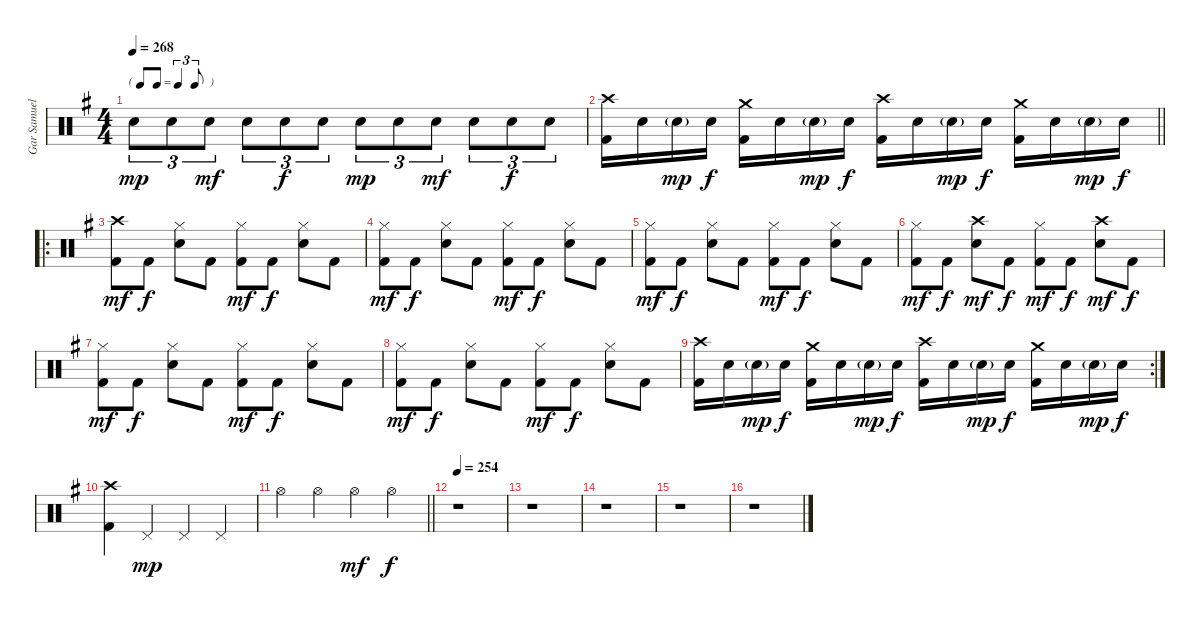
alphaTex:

\track ("Gar Samuelson" "Gar Samuel") {instrument percussion}
\staff {score}
\articulation defaults
\ts (4 4)
\tf triplet8th
\tempo 268
\clef neutral
\ks g "Snare (hit) 2".8{tu (3 2) dy mp} "Snare (hit) 2".8{tu (3 2)} "Snare (hit) 2".8{tu (3 2) dy mf} "Snare (hit) 2".8{tu (3 2)} "Snare (hit) 2".8{tu (3 2) dy f} "Snare (hit) 2".8{tu (3 2)} "Snare (hit) 2".8{tu (3 2) dy mp} "Snare (hit) 2".8{tu (3 2)} "Snare (hit) 2".8{tu (3 2) dy mf} "Snare (hit) 2".8{tu (3 2)} "Snare (hit) 2".8{tu (3 2) dy f} "Snare (hit) 2".8{tu (3 2)}
|
\barLineRight lightlight
("Crash high (hit)" "Kick (hit) 2").16 "Snare (hit) 2".16 "Snare (hit) 2"{g}.16{dy mp} "Snare (hit) 2".16{dy f} ("Crash medium (hit)" "Kick (hit) 2").16 "Snare (hit) 2".16 "Snare (hit) 2"{g}.16{dy mp} "Snare (hit) 2".16{dy f} ("Crash high (hit)" "Kick (hit) 2").16 "Snare (hit) 2".16 "Snare (hit) 2"{g}.16{dy mp} "Snare (hit) 2".16{dy f} ("Crash medium (hit)" "Kick (hit) 2").16 "Snare (hit) 2".16 "Snare (hit) 2"{g}.16{dy mp} "Snare (hit) 2".16{dy f} |
\ro
("Crash high (hit)" "Kick (hit) 2").8{dy mf} "Kick (hit) 2".8{dy f} ("Hi-Hat (closed)" "Snare (hit) 2").8 "Kick (hit) 2".8 ("Hi-Hat (closed)" "Kick (hit) 2").8{dy mf} "Kick (hit) 2".8{dy f} ("Hi-Hat (closed)" "Snare (hit) 2").8 "Kick (hit) 2".8 |
("Hi-Hat (closed)" "Kick (hit) 2").8{dy mf} "Kick (hit) 2".8{dy f} ("Hi-Hat (closed)" "Snare (hit) 2").8 "Kick (hit) 2".8 ("Hi-Hat (closed)" "Kick (hit) 2").8{dy mf} "Kick (hit) 2".8{dy f} ("Hi-Hat (closed)" "Snare (hit) 2").8 "Kick (hit) 2".8 |
("Hi-Hat (closed)" "Kick (hit) 2").8{dy mf} "Kick (hit) 2".8{dy f} ("Hi-Hat (closed)" "Snare (hit) 2").8 "Kick (hit) 2".8 ("Hi-Hat (closed)" "Kick (hit) 2").8{dy mf} "Kick (hit) 2".8{dy f} ("Hi-Hat (closed)" "Snare (hit) 2").8 "Kick (hit) 2".8 |
("Hi-Hat (closed)" "Kick (hit) 2").8{dy mf} "Kick (hit) 2".8{dy f} ("Crash high (hit)" "Snare (hit) 2").8{dy mf} "Kick (hit) 2".8{dy f} ("Hi-Hat (closed)" "Kick (hit) 2").8{dy mf} "Kick (hit) 2".8{dy f} ("Crash high (hit)" "Snare (hit) 2").8{dy mf} "Kick (hit) 2".8{dy f} |
("Hi-Hat (closed)" "Kick (hit) 2").8{dy mf} "Kick (hit) 2".8{dy f} ("Hi-Hat (closed)" "Snare (hit) 2").8 "Kick (hit) 2".8 ("Hi-Hat (closed)" "Kick (hit) 2").8{dy mf} "Kick (hit) 2".8{dy f} ("Hi-Hat (closed)" "Snare (hit) 2").8 "Kick (hit) 2".8 |
("Hi-Hat (closed)" "Kick (hit) 2").8{dy mf} "Kick (hit) 2".8{dy f} ("Hi-Hat (closed)" "Snare (hit) 2").8 "Kick (hit) 2".8 ("Hi-Hat (closed)" "Kick (hit) 2").8{dy mf} "Kick (hit) 2".8{dy f} ("Hi-Hat (closed)" "Snare (hit) 2").8 "Kick (hit) 2".8 |
\rc 2
("Crash high (hit)" "Kick (hit) 2").16 "Snare (hit) 2".16 "Snare (hit) 2"{g}.16{dy mp} "Snare (hit) 2".16{dy f} ("Crash medium (hit)" "Kick (hit) 2").16 "Snare (hit) 2".16 "Snare (hit) 2"{g}.16{dy mp} "Snare (hit) 2".16{dy f} ("Crash high (hit)" "Kick (hit) 2").16 "Snare (hit) 2".16 "Snare (hit) 2"{g}.16{dy mp} "Snare (hit) 2".16{dy f} ("Crash medium (hit)" "Kick (hit) 2").16 "Snare (hit) 2".16 "Snare (hit) 2"{g}.16{dy mp} "Snare (hit) 2".16{dy f} |
("Crash high (hit)" "Kick (hit) 2").4 "Pedal Hi-Hat (hit)".4{dy mp} "Pedal Hi-Hat (hit)".4 "Pedal Hi-Hat (hit)".4 |
\barLineRight lightlight "Hi-Hat (open)".4 "Hi-Hat (open)".4 "Hi-Hat (open)".4{dy mf} "Hi-Hat (open)".4{dy f}
|
\tempo 254
r.1 |
r.1 |
r.1 |
r.1 |
r.1
